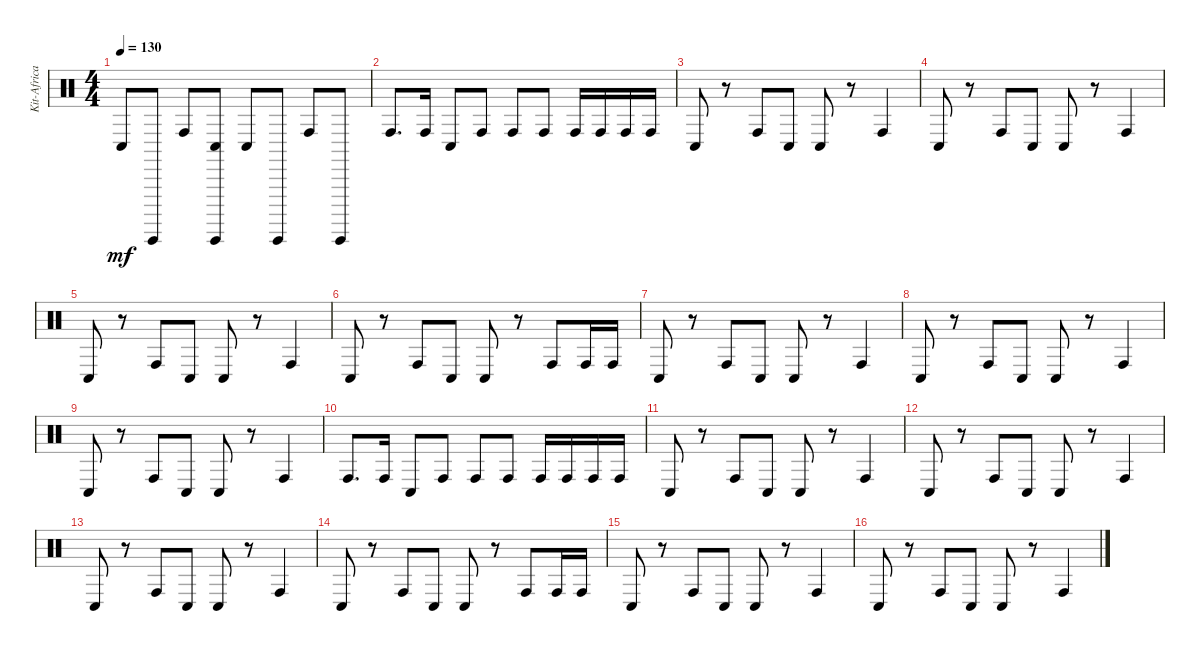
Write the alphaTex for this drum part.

\track ("Kit-Africa" "Kit-Africa") {instrument percussion}
\staff {score}
\articulation defaults
\ts (4 4)
\tempo 130
\clef neutral
\ks c "Conga low (hit)".8{dy mf} "Guiro (hit)".8 "Conga high (hit)".8
("Conga low (hit)" "Guiro (hit)").8 "Conga low (hit)".8 "Guiro (hit)".8 "Conga high (hit)".8 "Guiro (hit)".8 |
"Conga high (hit)".8{d} "Conga high (hit)".16 "Conga low (hit)".8 "Conga high (hit)".8 "Conga high (hit)".8 "Conga high (hit)".8 "Conga high (hit)".16 "Conga high (hit)".16 "Conga high (hit)".16 "Conga high (hit)".16 |
"Conga low (hit)".8 r.8 "Conga high (hit)".8 "Conga low (hit)".8 "Conga low (hit)".8 r.8 "Conga high (hit)".4 |
"Conga low (hit)".8 r.8 "Conga high (hit)".8 "Conga low (hit)".8 "Conga low (hit)".8 r.8 "Conga high (hit)".4 |
"Conga low (hit)".8 r.8 "Conga high (hit)".8 "Conga low (hit)".8 "Conga low (hit)".8 r.8 "Conga high (hit)".4 |
"Conga low (hit)".8 r.8 "Conga high (hit)".8 "Conga low (hit)".8 "Conga low (hit)".8 r.8 "Conga high (hit)".8 "Conga high (hit)".16 "Conga high (hit)".16 |
"Conga low (hit)".8 r.8 "Conga high (hit)".8 "Conga low (hit)".8 "Conga low (hit)".8 r.8 "Conga high (hit)".4 |
"Conga low (hit)".8 r.8 "Conga high (hit)".8 "Conga low (hit)".8 "Conga low (hit)".8 r.8 "Conga high (hit)".4 |
"Conga low (hit)".8 r.8 "Conga high (hit)".8 "Conga low (hit)".8 "Conga low (hit)".8 r.8 "Conga high (hit)".4 |
"Conga high (hit)".8{d} "Conga high (hit)".16 "Conga low (hit)".8 "Conga high (hit)".8 "Conga high (hit)".8 "Conga high (hit)".8 "Conga high (hit)".16 "Conga high (hit)".16 "Conga high (hit)".16 "Conga high (hit)".16 |
"Conga low (hit)".8 r.8 "Conga high (hit)".8 "Conga low (hit)".8 "Conga low (hit)".8 r.8 "Conga high (hit)".4 |
"Conga low (hit)".8 r.8 "Conga high (hit)".8 "Conga low (hit)".8 "Conga low (hit)".8 r.8 "Conga high (hit)".4 |
"Conga low (hit)".8 r.8 "Conga high (hit)".8 "Conga low (hit)".8 "Conga low (hit)".8 r.8 "Conga high (hit)".4 |
"Conga low (hit)".8 r.8 "Conga high (hit)".8 "Conga low (hit)".8 "Conga low (hit)".8 r.8 "Conga high (hit)".8 "Conga high (hit)".16 "Conga high (hit)".16 |
"Conga low (hit)".8 r.8 "Conga high (hit)".8 "Conga low (hit)".8 "Conga low (hit)".8 r.8 "Conga high (hit)".4 |
"Conga low (hit)".8 r.8 "Conga high (hit)".8 "Conga low (hit)".8 "Conga low (hit)".8 r.8 "Conga high (hit)".4
